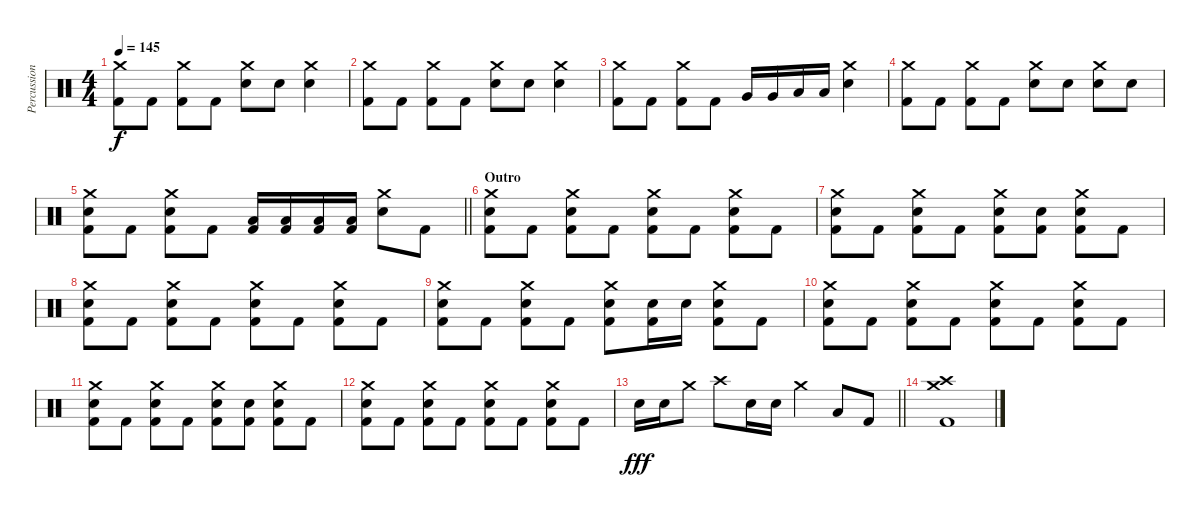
\track ("Percussion" "Percussion") {instrument percussion}
\staff {score}
\articulation defaults
\ts (4 4)
\tempo 145
\clef neutral
\ks c
("Crash medium (hit)" "Kick (hit) 2").8{dy f} "Kick (hit) 2".8 ("Crash medium (hit)" "Kick (hit) 2").8 "Kick (hit) 2".8 ("Crash medium (hit)" "Electric Snare (hit)").8 "Electric Snare (hit)".8 ("Crash medium (hit)" "Electric Snare (hit)").4 |
("Crash medium (hit)" "Kick (hit) 2").8 "Kick (hit) 2".8 ("Crash medium (hit)" "Kick (hit) 2").8 "Kick (hit) 2".8 ("Crash medium (hit)" "Electric Snare (hit)").8 "Electric Snare (hit)".8 ("Crash medium (hit)" "Electric Snare (hit)").4 |
("Crash medium (hit)" "Kick (hit) 2").8 "Kick (hit) 2".8 ("Crash medium (hit)" "Kick (hit) 2").8 "Kick (hit) 2".8 "Very Low Tom (hit)".16 "Very Low Tom (hit)".16 "Low Floor Tom (hit)".16 "Low Floor Tom (hit)".16 ("Crash medium (hit)" "Electric Snare (hit)").4 |
("Crash medium (hit)" "Kick (hit) 2").8 "Kick (hit) 2".8 ("Crash medium (hit)" "Kick (hit) 2").8 "Kick (hit) 2".8 ("Crash medium (hit)" "Electric Snare (hit)").8 "Electric Snare (hit)".8 ("Crash medium (hit)" "Electric Snare (hit)").8 "Electric Snare (hit)".8 |
\barLineRight lightlight
("Crash medium (hit)" "Electric Snare (hit)" "Kick (hit) 2").8 "Kick (hit) 2".8 ("Crash medium (hit)" "Electric Snare (hit)" "Kick (hit) 2").8 "Kick (hit) 2".8 ("Low Tom (hit)" "Kick (hit) 2").16 ("Low Tom (hit)" "Kick (hit) 2").16 ("Low Tom (hit)" "Kick (hit) 2").16 ("Low Tom (hit)" "Kick (hit) 2").16 ("Crash medium (hit)" "Electric Snare (hit)").8 "Kick (hit) 2".8 |
\section ("" "Outro")
("Crash medium (hit)" "Electric Snare (hit)" "Kick (hit) 2").8 "Kick (hit) 2".8 ("Crash medium (hit)" "Electric Snare (hit)" "Kick (hit) 2").8 "Kick (hit) 2".8 ("Crash medium (hit)" "Electric Snare (hit)" "Kick (hit) 2").8 "Kick (hit) 2".8 ("Crash medium (hit)" "Electric Snare (hit)" "Kick (hit) 2").8 "Kick (hit) 2".8 |
("Crash medium (hit)" "Electric Snare (hit)" "Kick (hit) 2").8 "Kick (hit) 2".8 ("Crash medium (hit)" "Electric Snare (hit)" "Kick (hit) 2").8 "Kick (hit) 2".8 ("Crash medium (hit)" "Electric Snare (hit)" "Kick (hit) 2").8 ("Electric Snare (hit)" "Kick (hit) 2").8 ("Crash medium (hit)" "Electric Snare (hit)" "Kick (hit) 2").8 "Kick (hit) 2".8 |
("Crash medium (hit)" "Electric Snare (hit)" "Kick (hit) 2").8 "Kick (hit) 2".8 ("Crash medium (hit)" "Electric Snare (hit)" "Kick (hit) 2").8 "Kick (hit) 2".8 ("Crash medium (hit)" "Electric Snare (hit)" "Kick (hit) 2").8 "Kick (hit) 2".8 ("Crash medium (hit)" "Electric Snare (hit)" "Kick (hit) 2").8 "Kick (hit) 2".8 |
("Crash medium (hit)" "Electric Snare (hit)" "Kick (hit) 2").8 "Kick (hit) 2".8 ("Crash medium (hit)" "Electric Snare (hit)" "Kick (hit) 2").8 "Kick (hit) 2".8 ("Crash medium (hit)" "Electric Snare (hit)" "Kick (hit) 2").8 ("Electric Snare (hit)" "Kick (hit) 2").16 "Electric Snare (hit)".16 ("Crash medium (hit)" "Electric Snare (hit)" "Kick (hit) 2").8 "Kick (hit) 2".8 |
("Crash medium (hit)" "Electric Snare (hit)" "Kick (hit) 2").8 "Kick (hit) 2".8 ("Crash medium (hit)" "Electric Snare (hit)" "Kick (hit) 2").8 "Kick (hit) 2".8 ("Crash medium (hit)" "Electric Snare (hit)" "Kick (hit) 2").8 "Kick (hit) 2".8 ("Crash medium (hit)" "Electric Snare (hit)" "Kick (hit) 2").8 "Kick (hit) 2".8 |
("Crash medium (hit)" "Electric Snare (hit)" "Kick (hit) 2").8 "Kick (hit) 2".8 ("Crash medium (hit)" "Electric Snare (hit)" "Kick (hit) 2").8 "Kick (hit) 2".8 ("Crash medium (hit)" "Electric Snare (hit)" "Kick (hit) 2").8 ("Electric Snare (hit)" "Kick (hit) 2").8 ("Crash medium (hit)" "Electric Snare (hit)" "Kick (hit) 2").8 "Kick (hit) 2".8 |
("Crash medium (hit)" "Electric Snare (hit)" "Kick (hit) 2").8 "Kick (hit) 2".8 ("Crash medium (hit)" "Electric Snare (hit)" "Kick (hit) 2").8 "Kick (hit) 2".8 ("Crash medium (hit)" "Electric Snare (hit)" "Kick (hit) 2").8 "Kick (hit) 2".8 ("Crash medium (hit)" "Electric Snare (hit)" "Kick (hit) 2").8 "Kick (hit) 2".8 |
\barLineRight lightlight "Electric Snare (hit)".16{dy fff} "Electric Snare (hit)".16 "Crash medium (hit)".8 "Crash high (hit)".8 "Electric Snare (hit)".16 "Electric Snare (hit)".16 "Crash medium (hit)".4 "Low Floor Tom (hit)".8 "Kick (hit) 2".8
|
("Crash high (hit)" "Crash medium (hit)" "Kick (hit) 2").1
